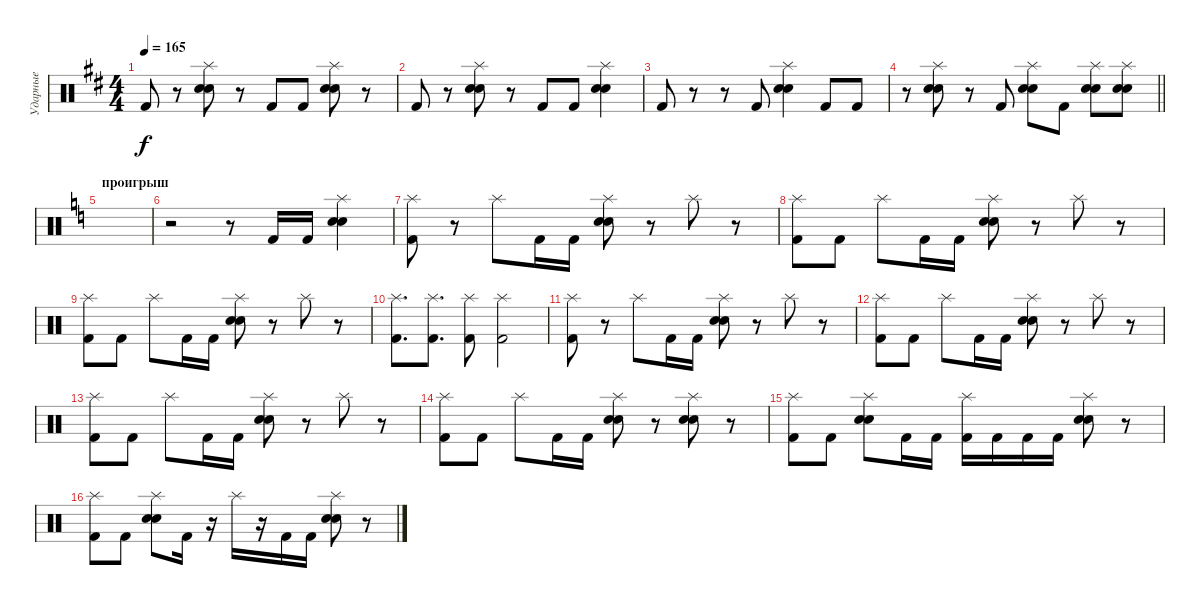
\track ("Ударные" "Ударные") {instrument percussion}
\staff {score}
\articulation defaults
\ts (4 4)
\tempo 165
\clef neutral
\ks bminor "Kick (hit) 2".8{dy f}
r.8 ("Splash (hit)" "Electric Snare (hit)" "Snare (hit) 2").8 r.8 "Kick (hit) 2".8 "Kick (hit) 2".8 ("Splash (hit)" "Electric Snare (hit)" "Snare (hit) 2").8 r.8 |
"Kick (hit) 2".8 r.8 ("Splash (hit)" "Electric Snare (hit)" "Snare (hit) 2").8 r.8 "Kick (hit) 2".8 "Kick (hit) 2".8 ("Splash (hit)" "Electric Snare (hit)" "Snare (hit) 2").4 |
"Kick (hit) 2".8 r.8 r.8 "Kick (hit) 2".8 ("Splash (hit)" "Electric Snare (hit)" "Snare (hit) 2").4 "Kick (hit) 2".8 "Kick (hit) 2".8 |
\barLineRight lightlight
r.8 ("Splash (hit)" "Electric Snare (hit)" "Snare (hit) 2").8 r.8 "Kick (hit) 2".8 ("Splash (hit)" "Electric Snare (hit)" "Snare (hit) 2").8 "Kick (hit) 2".8 ("Splash (hit)" "Electric Snare (hit)" "Snare (hit) 2").8 ("Splash (hit)" "Electric Snare (hit)" "Snare (hit) 2").8 |
\section ("" "проигрыш")
\ks c
|
r.2 r.8 "Kick (hit) 2".16 "Kick (hit) 2".16 ("Splash (hit)" "Electric Snare (hit)" "Snare (hit) 2").4 |
("Splash (hit)" "Kick (hit) 2").8 r.8 "Splash (hit)".8 "Kick (hit) 2".16 "Kick (hit) 2".16 ("Splash (hit)" "Electric Snare (hit)" "Snare (hit) 2").8 r.8 "Splash (hit)".8 r.8 |
("Splash (hit)" "Kick (hit) 2").8 "Kick (hit) 2".8 "Splash (hit)".8 "Kick (hit) 2".16 "Kick (hit) 2".16 ("Splash (hit)" "Electric Snare (hit)" "Snare (hit) 2").8 r.8 "Splash (hit)".8 r.8 |
("Splash (hit)" "Kick (hit) 2").8 "Kick (hit) 2".8 "Splash (hit)".8 "Kick (hit) 2".16 "Kick (hit) 2".16 ("Splash (hit)" "Electric Snare (hit)" "Snare (hit) 2").8 r.8 "Splash (hit)".8 r.8 |
("Splash (hit)" "Kick (hit) 2").8{d} ("Splash (hit)" "Kick (hit) 2").8{d} ("Splash (hit)" "Kick (hit) 2").8 ("Splash (hit)" "Kick (hit) 2").2 |
("Splash (hit)" "Kick (hit) 2").8 r.8 "Splash (hit)".8 "Kick (hit) 2".16 "Kick (hit) 2".16 ("Splash (hit)" "Electric Snare (hit)" "Snare (hit) 2").8 r.8 "Splash (hit)".8 r.8 |
("Splash (hit)" "Kick (hit) 2").8 "Kick (hit) 2".8 "Splash (hit)".8 "Kick (hit) 2".16 "Kick (hit) 2".16 ("Splash (hit)" "Electric Snare (hit)" "Snare (hit) 2").8 r.8 "Splash (hit)".8 r.8 |
("Splash (hit)" "Kick (hit) 2").8 "Kick (hit) 2".8 "Splash (hit)".8 "Kick (hit) 2".16 "Kick (hit) 2".16 ("Splash (hit)" "Electric Snare (hit)" "Snare (hit) 2").8 r.8 "Splash (hit)".8 r.8 |
("Splash (hit)" "Kick (hit) 2").8 "Kick (hit) 2".8 "Splash (hit)".8 "Kick (hit) 2".16 "Kick (hit) 2".16 ("Splash (hit)" "Electric Snare (hit)" "Snare (hit) 2").8 r.8 ("Splash (hit)" "Electric Snare (hit)" "Snare (hit) 2").8 r.8 |
("Splash (hit)" "Kick (hit) 2").8 "Kick (hit) 2".8 ("Splash (hit)" "Electric Snare (hit)" "Snare (hit) 2").8 "Kick (hit) 2".16 "Kick (hit) 2".16 ("Splash (hit)" "Kick (hit) 2").16 "Kick (hit) 2".16 "Kick (hit) 2".16 "Kick (hit) 2".16 ("Splash (hit)" "Electric Snare (hit)" "Snare (hit) 2").8 r.8 |
("Splash (hit)" "Kick (hit) 2").8 "Kick (hit) 2".8 ("Splash (hit)" "Electric Snare (hit)" "Snare (hit) 2").8 "Kick (hit) 2".16 r.16 "Splash (hit)".16 r.16 "Kick (hit) 2".16 "Kick (hit) 2".16 ("Splash (hit)" "Electric Snare (hit)" "Snare (hit) 2").8 r.8
